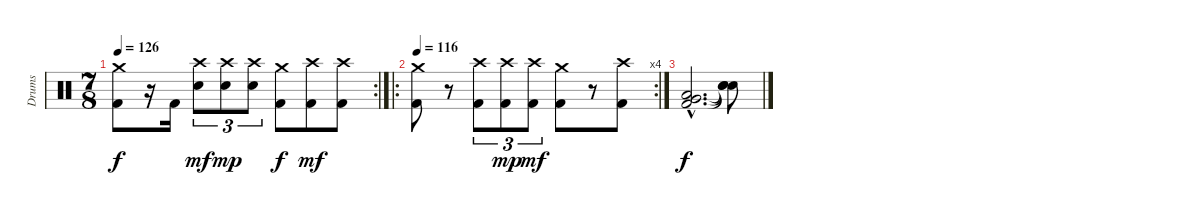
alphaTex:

\track ("Drums" "Drums") {instrument percussion}
\staff {score}
\articulation defaults
\rc 2
\ts (7 8)
\tempo 126
\clef neutral
\ks c
("Crash medium (hit)" "Kick (hit) 2").8{dy f} r.16 "Kick (hit) 2".16 ("Crash high (hit)" "Snare (hit) 2").8{tu (3 2) dy mf} ("Crash high (hit)" "Snare (hit) 2").8{tu (3 2) dy mp} ("Crash high (hit)" "Snare (hit) 2").8{tu (3 2)} ("Crash medium (hit)" "Kick (hit) 2").8{dy f} ("Crash high (hit)" "Kick (hit) 2").8{dy mf} ("Crash high (hit)" "Kick (hit) 2").8 |
\ro
\rc 4
\tempo 116
("Crash medium (hit)" "Kick (hit) 2").8 r.8 ("Crash high (hit)" "Kick (hit) 2").8{tu (3 2)} ("Crash high (hit)" "Kick (hit) 2").8{tu (3 2) dy mp} ("Crash high (hit)" "Kick (hit) 2").8{tu (3 2) dy mf} ("Crash medium (hit)" "Kick (hit) 2").8 r.8 ("Crash high (hit)" "Kick (hit) 2").8 |
("Low Tom (hit)"{hac} "Very Low Tom (hit)"{hac} "Kick (hit) 2"{hac}).2{d dy f} ("Snare (hit)"{t} "Snare (hit)"{t} "Snare (hit)"{t}).8
